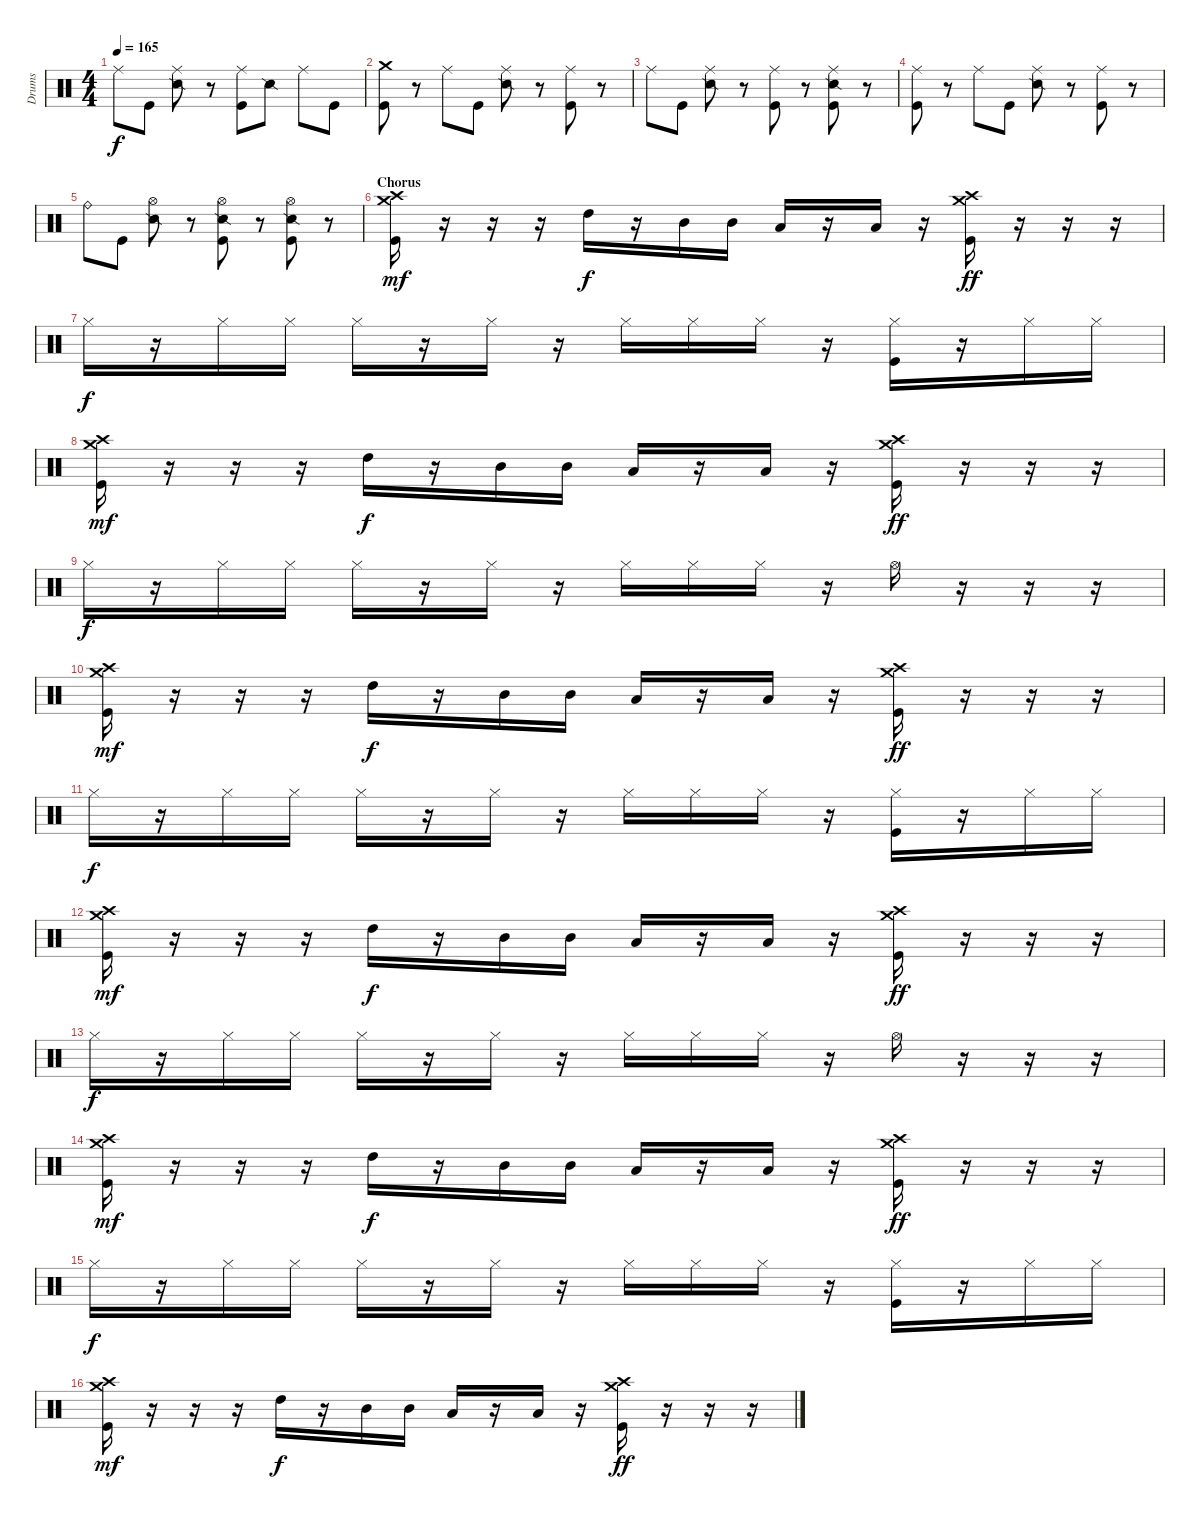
\track ("Drums" "Drums") {instrument percussion}
\staff {score}
\articulation defaults
\ts (4 4)
\tempo 165
\clef neutral
\ks c "Ride (middle)".8{dy f} "Kick (hit)".8
("Ride (middle)" "Snare (side stick) 2").8 r.8 ("Ride (middle)" "Kick (hit)").8 "Snare (side stick) 2".8 "Ride (middle)".8 "Kick (hit)".8 |
("Crash medium (hit)" "Kick (hit)").8 r.8 "Ride (middle)".8 "Kick (hit)".8 ("Ride (middle)" "Snare (side stick) 2").8 r.8 ("Ride (middle)" "Kick (hit)").8 r.8 |
"Ride (middle)".8 "Kick (hit)".8 ("Ride (middle)" "Snare (side stick) 2").8 r.8 ("Ride (middle)" "Kick (hit)").8 r.8 ("Ride (middle)" "Snare (side stick) 2" "Kick (hit)").8 r.8 |
("Ride (middle)" "Kick (hit)").8 r.8 "Ride (middle)".8 "Kick (hit)".8 ("Ride (middle)" "Snare (side stick) 2").8 r.8 ("Ride (middle)" "Kick (hit)").8 r.8 |
"Ride (bell)".8 "Kick (hit)".8 ("Hi-Hat (open)" "Snare (side stick) 2").8 r.8 ("Hi-Hat (open)" "Snare (side stick) 2" "Kick (hit)").8 r.8 ("Hi-Hat (open)" "Snare (side stick) 2" "Kick (hit)").8 r.8 |
\section ("" "Chorus")
("Crash high (hit)" "Crash medium (hit)" "Kick (hit)").16{dy mf} r.16 r.16 r.16 "High Tom (hit)".16{dy f} r.16 "Mid Tom (hit)".16 "Mid Tom (hit)".16 "Low Tom (hit)".16 r.16 "Low Tom (hit)".16 r.16 ("Crash high (hit)" "Crash medium (hit)" "Kick (hit)").16{dy ff} r.16 r.16 r.16 |
"Hi-Hat (closed)".16{dy f} r.16 "Hi-Hat (closed)".16 "Hi-Hat (closed)".16 "Hi-Hat (closed)".16 r.16 "Hi-Hat (closed)".16 r.16 "Hi-Hat (closed)".16 "Hi-Hat (closed)".16 "Hi-Hat (closed)".16 r.16 ("Hi-Hat (closed)" "Kick (hit)").16 r.16 "Hi-Hat (closed)".16 "Hi-Hat (closed)".16 |
("Crash high (hit)" "Crash medium (hit)" "Kick (hit)").16{dy mf} r.16 r.16 r.16 "High Tom (hit)".16{dy f} r.16 "Mid Tom (hit)".16 "Mid Tom (hit)".16 "Low Tom (hit)".16 r.16 "Low Tom (hit)".16 r.16 ("Crash high (hit)" "Crash medium (hit)" "Kick (hit)").16{dy ff} r.16 r.16 r.16 |
"Hi-Hat (closed)".16{dy f} r.16 "Hi-Hat (closed)".16 "Hi-Hat (closed)".16 "Hi-Hat (closed)".16 r.16 "Hi-Hat (closed)".16 r.16 "Hi-Hat (closed)".16 "Hi-Hat (closed)".16 "Hi-Hat (closed)".16 r.16 "Hi-Hat (open)".16 r.16 r.16 r.16 |
("Crash high (hit)" "Crash medium (hit)" "Kick (hit)").16{dy mf} r.16 r.16 r.16 "High Tom (hit)".16{dy f} r.16 "Mid Tom (hit)".16 "Mid Tom (hit)".16 "Low Tom (hit)".16 r.16 "Low Tom (hit)".16 r.16 ("Crash high (hit)" "Crash medium (hit)" "Kick (hit)").16{dy ff} r.16 r.16 r.16 |
"Hi-Hat (closed)".16{dy f} r.16 "Hi-Hat (closed)".16 "Hi-Hat (closed)".16 "Hi-Hat (closed)".16 r.16 "Hi-Hat (closed)".16 r.16 "Hi-Hat (closed)".16 "Hi-Hat (closed)".16 "Hi-Hat (closed)".16 r.16 ("Hi-Hat (closed)" "Kick (hit)").16 r.16 "Hi-Hat (closed)".16 "Hi-Hat (closed)".16 |
("Crash high (hit)" "Crash medium (hit)" "Kick (hit)").16{dy mf} r.16 r.16 r.16 "High Tom (hit)".16{dy f} r.16 "Mid Tom (hit)".16 "Mid Tom (hit)".16 "Low Tom (hit)".16 r.16 "Low Tom (hit)".16 r.16 ("Crash high (hit)" "Crash medium (hit)" "Kick (hit)").16{dy ff} r.16 r.16 r.16 |
"Hi-Hat (closed)".16{dy f} r.16 "Hi-Hat (closed)".16 "Hi-Hat (closed)".16 "Hi-Hat (closed)".16 r.16 "Hi-Hat (closed)".16 r.16 "Hi-Hat (closed)".16 "Hi-Hat (closed)".16 "Hi-Hat (closed)".16 r.16 "Hi-Hat (open)".16 r.16 r.16 r.16 |
("Crash high (hit)" "Crash medium (hit)" "Kick (hit)").16{dy mf} r.16 r.16 r.16 "High Tom (hit)".16{dy f} r.16 "Mid Tom (hit)".16 "Mid Tom (hit)".16 "Low Tom (hit)".16 r.16 "Low Tom (hit)".16 r.16 ("Crash high (hit)" "Crash medium (hit)" "Kick (hit)").16{dy ff} r.16 r.16 r.16 |
"Hi-Hat (closed)".16{dy f} r.16 "Hi-Hat (closed)".16 "Hi-Hat (closed)".16 "Hi-Hat (closed)".16 r.16 "Hi-Hat (closed)".16 r.16 "Hi-Hat (closed)".16 "Hi-Hat (closed)".16 "Hi-Hat (closed)".16 r.16 ("Hi-Hat (closed)" "Kick (hit)").16 r.16 "Hi-Hat (closed)".16 "Hi-Hat (closed)".16 |
("Crash high (hit)" "Crash medium (hit)" "Kick (hit)").16{dy mf} r.16 r.16 r.16 "High Tom (hit)".16{dy f} r.16 "Mid Tom (hit)".16 "Mid Tom (hit)".16 "Low Tom (hit)".16 r.16 "Low Tom (hit)".16 r.16 ("Crash high (hit)" "Crash medium (hit)" "Kick (hit)").16{dy ff} r.16 r.16 r.16
